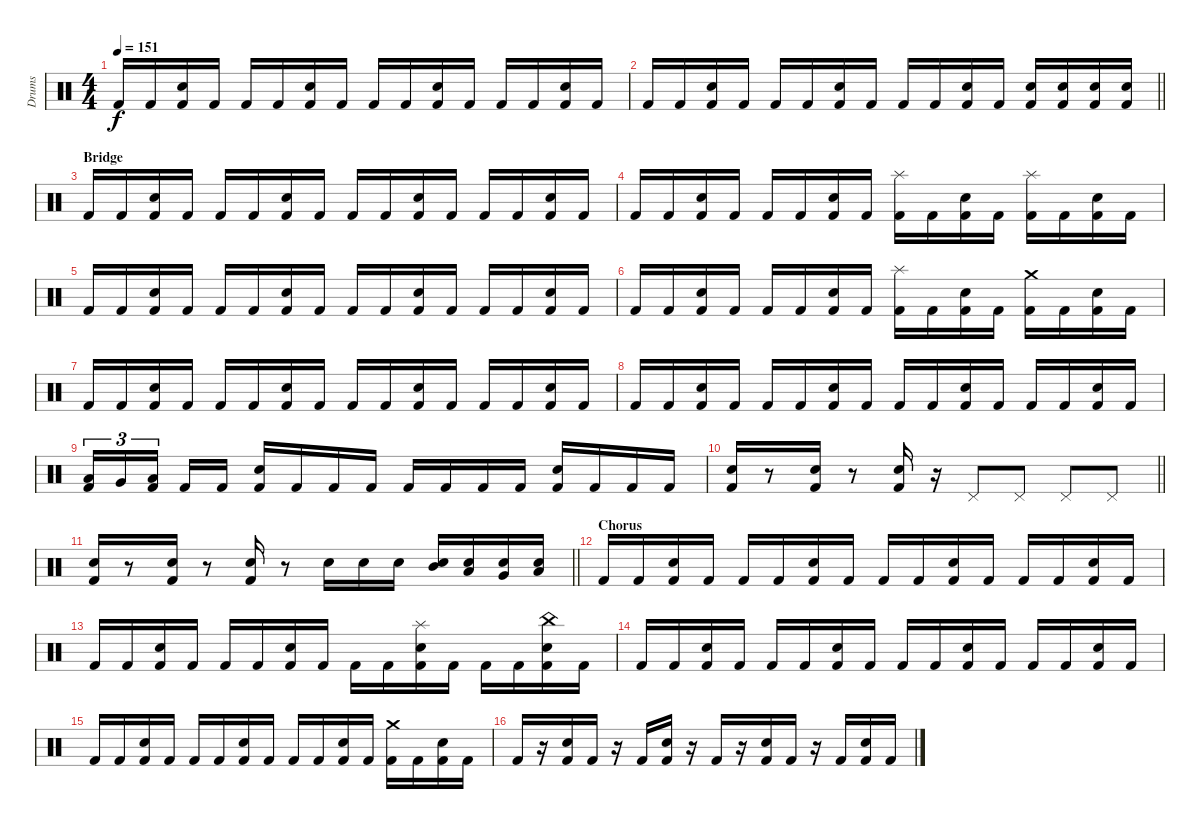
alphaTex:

\track ("Drums" "Drums") {instrument percussion}
\staff {score}
\articulation defaults
\ts (4 4)
\tempo 151
\clef neutral
\ks c "Kick (hit) 2".16{dy f} "Kick (hit) 2".16
("Snare (hit) 2" "Kick (hit) 2").16 "Kick (hit) 2".16 "Kick (hit) 2".16 "Kick (hit) 2".16 ("Snare (hit) 2" "Kick (hit) 2").16 "Kick (hit) 2".16 "Kick (hit) 2".16 "Kick (hit) 2".16 ("Snare (hit) 2" "Kick (hit) 2").16 "Kick (hit) 2".16 "Kick (hit) 2".16 "Kick (hit) 2".16 ("Snare (hit) 2" "Kick (hit) 2").16 "Kick (hit) 2".16 |
\barLineRight lightlight "Kick (hit) 2".16 "Kick (hit) 2".16
("Snare (hit) 2" "Kick (hit) 2").16 "Kick (hit) 2".16 "Kick (hit) 2".16 "Kick (hit) 2".16 ("Snare (hit) 2" "Kick (hit) 2").16 "Kick (hit) 2".16 "Kick (hit) 2".16 "Kick (hit) 2".16 ("Snare (hit) 2" "Kick (hit) 2").16 "Kick (hit) 2".16 ("Snare (hit) 2" "Kick (hit) 2").16 ("Snare (hit) 2" "Kick (hit) 2").16 ("Snare (hit) 2" "Kick (hit) 2").16 ("Snare (hit) 2" "Kick (hit) 2").16 |
\section ("" "Bridge")
"Kick (hit) 2".16 "Kick (hit) 2".16 ("Snare (hit) 2" "Kick (hit) 2").16 "Kick (hit) 2".16 "Kick (hit) 2".16 "Kick (hit) 2".16 ("Snare (hit) 2" "Kick (hit) 2").16 "Kick (hit) 2".16 "Kick (hit) 2".16 "Kick (hit) 2".16 ("Snare (hit) 2" "Kick (hit) 2").16 "Kick (hit) 2".16 "Kick (hit) 2".16 "Kick (hit) 2".16 ("Snare (hit) 2" "Kick (hit) 2").16 "Kick (hit) 2".16 |
"Kick (hit) 2".16 "Kick (hit) 2".16 ("Snare (hit) 2" "Kick (hit) 2").16 "Kick (hit) 2".16 "Kick (hit) 2".16 "Kick (hit) 2".16 ("Snare (hit) 2" "Kick (hit) 2").16 "Kick (hit) 2".16 ("Splash (hit)" "Kick (hit) 2").16 "Kick (hit) 2".16 ("Snare (hit) 2" "Kick (hit) 2").16 "Kick (hit) 2".16 ("Splash (hit)" "Kick (hit) 2").16 "Kick (hit) 2".16 ("Snare (hit) 2" "Kick (hit) 2").16 "Kick (hit) 2".16 |
"Kick (hit) 2".16 "Kick (hit) 2".16 ("Snare (hit) 2" "Kick (hit) 2").16 "Kick (hit) 2".16 "Kick (hit) 2".16 "Kick (hit) 2".16 ("Snare (hit) 2" "Kick (hit) 2").16 "Kick (hit) 2".16 "Kick (hit) 2".16 "Kick (hit) 2".16 ("Snare (hit) 2" "Kick (hit) 2").16 "Kick (hit) 2".16 "Kick (hit) 2".16 "Kick (hit) 2".16 ("Snare (hit) 2" "Kick (hit) 2").16 "Kick (hit) 2".16 |
"Kick (hit) 2".16 "Kick (hit) 2".16 ("Snare (hit) 2" "Kick (hit) 2").16 "Kick (hit) 2".16 "Kick (hit) 2".16 "Kick (hit) 2".16 ("Snare (hit) 2" "Kick (hit) 2").16 "Kick (hit) 2".16 ("Splash (hit)" "Kick (hit) 2").16 "Kick (hit) 2".16 ("Snare (hit) 2" "Kick (hit) 2").16 "Kick (hit) 2".16 ("Crash medium (hit)" "Kick (hit) 2").16 "Kick (hit) 2".16 ("Snare (hit) 2" "Kick (hit) 2").16 "Kick (hit) 2".16 |
"Kick (hit) 2".16 "Kick (hit) 2".16 ("Snare (hit) 2" "Kick (hit) 2").16 "Kick (hit) 2".16 "Kick (hit) 2".16 "Kick (hit) 2".16 ("Snare (hit) 2" "Kick (hit) 2").16 "Kick (hit) 2".16 "Kick (hit) 2".16 "Kick (hit) 2".16 ("Snare (hit) 2" "Kick (hit) 2").16 "Kick (hit) 2".16 "Kick (hit) 2".16 "Kick (hit) 2".16 ("Snare (hit) 2" "Kick (hit) 2").16 "Kick (hit) 2".16 |
"Kick (hit) 2".16 "Kick (hit) 2".16 ("Snare (hit) 2" "Kick (hit) 2").16 "Kick (hit) 2".16 "Kick (hit) 2".16 "Kick (hit) 2".16 ("Snare (hit) 2" "Kick (hit) 2").16 "Kick (hit) 2".16 "Kick (hit) 2".16 "Kick (hit) 2".16 ("Snare (hit) 2" "Kick (hit) 2").16 "Kick (hit) 2".16 "Kick (hit) 2".16 "Kick (hit) 2".16 ("Snare (hit) 2" "Kick (hit) 2").16 "Kick (hit) 2".16 |
("Low Tom (hit)" "Kick (hit) 2").16{tu (3 2)} "Very Low Tom (hit)".16{tu (3 2)} ("Low Floor Tom (hit)" "Kick (hit) 2").16{tu (3 2) beam splitsecondary} "Kick (hit) 2".16 "Kick (hit) 2".16 ("Snare (hit) 2" "Kick (hit) 2").16 "Kick (hit) 2".16 "Kick (hit) 2".16 "Kick (hit) 2".16 "Kick (hit) 2".16 "Kick (hit) 2".16 "Kick (hit) 2".16 "Kick (hit) 2".16 ("Snare (hit) 2" "Kick (hit) 2").16 "Kick (hit) 2".16 "Kick (hit) 2".16 "Kick (hit) 2".16 |
\barLineRight lightlight
("Snare (hit) 2" "Kick (hit) 2").16 r.8 ("Snare (hit) 2" "Kick (hit) 2").16 r.8 ("Snare (hit) 2" "Kick (hit) 2").16 r.16 "Pedal Hi-Hat (hit)".8 "Pedal Hi-Hat (hit)".8 "Pedal Hi-Hat (hit)".8 "Pedal Hi-Hat (hit)".8 |
\barLineRight lightlight
("Snare (hit) 2" "Kick (hit) 2").16 r.8 ("Snare (hit) 2" "Kick (hit) 2").16 r.8 ("Snare (hit) 2" "Kick (hit) 2").16 r.8 "Snare (hit) 2".16 "Snare (hit) 2".16 "Snare (hit) 2".16 ("Mid Tom (hit)" "Snare (hit) 2").16 ("Low Tom (hit)" "Snare (hit) 2").16 ("Very Low Tom (hit)" "Snare (hit) 2").16 ("Low Floor Tom (hit)" "Snare (hit) 2").16 |
\section ("" "Chorus")
"Kick (hit) 2".16 "Kick (hit) 2".16 ("Snare (hit) 2" "Kick (hit) 2").16 "Kick (hit) 2".16 "Kick (hit) 2".16 "Kick (hit) 2".16 ("Snare (hit) 2" "Kick (hit) 2").16 "Kick (hit) 2".16 "Kick (hit) 2".16 "Kick (hit) 2".16 ("Snare (hit) 2" "Kick (hit) 2").16 "Kick (hit) 2".16 "Kick (hit) 2".16 "Kick (hit) 2".16 ("Snare (hit) 2" "Kick (hit) 2").16 "Kick (hit) 2".16 |
"Kick (hit) 2".16 "Kick (hit) 2".16 ("Snare (hit) 2" "Kick (hit) 2").16 "Kick (hit) 2".16 "Kick (hit) 2".16 "Kick (hit) 2".16 ("Snare (hit) 2" "Kick (hit) 2").16 "Kick (hit) 2".16 "Kick (hit) 2".16 "Kick (hit) 2".16 ("Splash (hit)" "Snare (hit) 2" "Kick (hit) 2").16 "Kick (hit) 2".16 "Kick (hit) 2".16 "Kick (hit) 2".16 ("China (hit)" "Snare (hit) 2" "Kick (hit) 2").16 "Kick (hit) 2".16 |
"Kick (hit) 2".16 "Kick (hit) 2".16 ("Snare (hit) 2" "Kick (hit) 2").16 "Kick (hit) 2".16 "Kick (hit) 2".16 "Kick (hit) 2".16 ("Snare (hit) 2" "Kick (hit) 2").16 "Kick (hit) 2".16 "Kick (hit) 2".16 "Kick (hit) 2".16 ("Snare (hit) 2" "Kick (hit) 2").16 "Kick (hit) 2".16 "Kick (hit) 2".16 "Kick (hit) 2".16 ("Snare (hit) 2" "Kick (hit) 2").16 "Kick (hit) 2".16 |
"Kick (hit) 2".16 "Kick (hit) 2".16 ("Snare (hit) 2" "Kick (hit) 2").16 "Kick (hit) 2".16 "Kick (hit) 2".16 "Kick (hit) 2".16 ("Snare (hit) 2" "Kick (hit) 2").16 "Kick (hit) 2".16 "Kick (hit) 2".16 "Kick (hit) 2".16 ("Snare (hit) 2" "Kick (hit) 2").16 "Kick (hit) 2".16 ("Crash medium (hit)" "Kick (hit) 2").16 "Kick (hit) 2".16 ("Snare (hit) 2" "Kick (hit) 2").16 "Kick (hit) 2".16 |
"Kick (hit) 2".16 r.16 ("Snare (hit) 2" "Kick (hit) 2").16 "Kick (hit) 2".16 r.16 "Kick (hit) 2".16 ("Snare (hit) 2" "Kick (hit) 2").16 r.16 "Kick (hit) 2".16 r.16 ("Snare (hit) 2" "Kick (hit) 2").16 "Kick (hit) 2".16 r.16 "Kick (hit) 2".16 ("Snare (hit) 2" "Kick (hit) 2").16 "Kick (hit) 2".16
